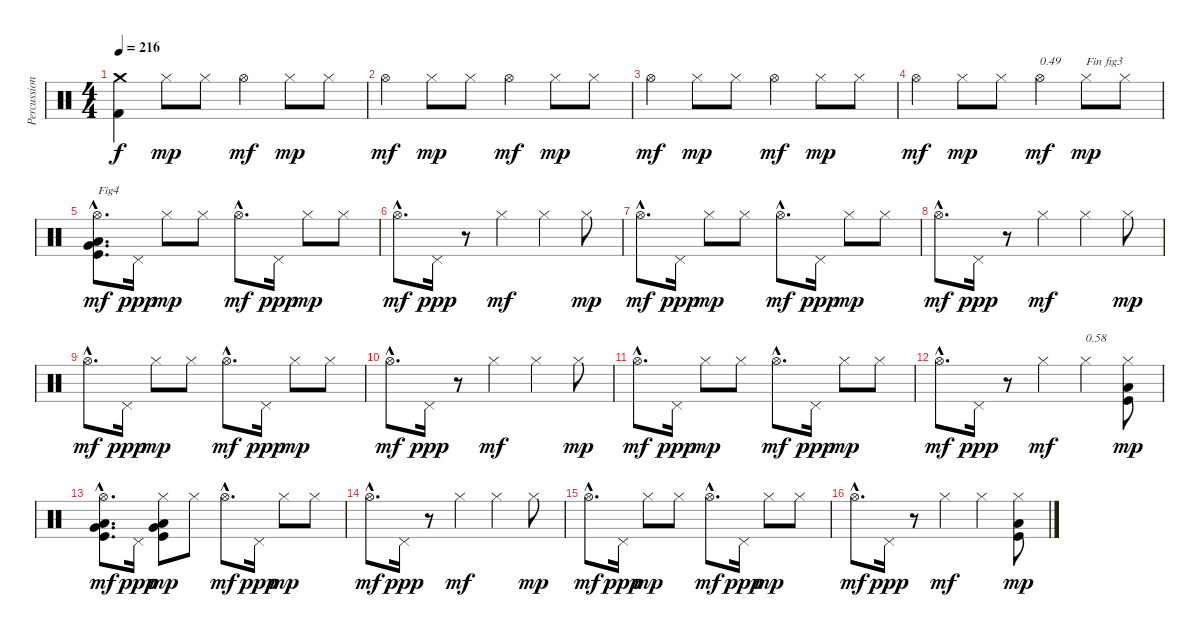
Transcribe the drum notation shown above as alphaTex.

\track ("Percussion" "Percussion") {instrument percussion}
\staff {score}
\articulation defaults
\ts (4 4)
\tempo 216
\clef neutral
\ks c
("Kick (hit) 2" "Crash medium (hit)").4{dy f} "Hi-Hat (closed)".8{dy mp} "Hi-Hat (closed)".8 "Hi-Hat (open)".4{dy mf} "Hi-Hat (closed)".8{dy mp} "Hi-Hat (closed)".8 |
"Hi-Hat (open)".4{dy mf} "Hi-Hat (closed)".8{dy mp} "Hi-Hat (closed)".8 "Hi-Hat (open)".4{dy mf} "Hi-Hat (closed)".8{dy mp} "Hi-Hat (closed)".8 |
"Hi-Hat (open)".4{dy mf} "Hi-Hat (closed)".8{dy mp} "Hi-Hat (closed)".8 "Hi-Hat (open)".4{dy mf} "Hi-Hat (closed)".8{dy mp} "Hi-Hat (closed)".8 |
"Hi-Hat (open)".4{dy mf} "Hi-Hat (closed)".8{dy mp} "Hi-Hat (closed)".8 "Hi-Hat (open)".4{txt "0.49" dy mf} "Hi-Hat (closed)".8{txt "Fin fig3" dy mp} "Hi-Hat (closed)".8 |
("Kick (hit)"{hac} "Low Floor Tom (hit)"{hac} "Very Low Tom (hit)"{hac} "Hi-Hat (open)"{hac}).8{d txt "Fig4" dy mf} "Pedal Hi-Hat (hit)".16{dy ppp} "Hi-Hat (closed)".8{dy mp} "Hi-Hat (closed)".8 "Hi-Hat (open)"{hac}.8{d dy mf} "Pedal Hi-Hat (hit)".16{dy ppp} "Hi-Hat (closed)".8{dy mp} "Hi-Hat (closed)".8 |
"Hi-Hat (open)"{hac}.8{d dy mf} "Pedal Hi-Hat (hit)".16{dy ppp} r.8 "Hi-Hat (closed)".4{dy mf} "Hi-Hat (closed)".4 "Hi-Hat (closed)".8{dy mp} |
"Hi-Hat (open)"{hac}.8{d dy mf} "Pedal Hi-Hat (hit)".16{dy ppp} "Hi-Hat (closed)".8{dy mp} "Hi-Hat (closed)".8 "Hi-Hat (open)"{hac}.8{d dy mf} "Pedal Hi-Hat (hit)".16{dy ppp} "Hi-Hat (closed)".8{dy mp} "Hi-Hat (closed)".8 |
"Hi-Hat (open)"{hac}.8{d dy mf} "Pedal Hi-Hat (hit)".16{dy ppp} r.8 "Hi-Hat (closed)".4{dy mf} "Hi-Hat (closed)".4 "Hi-Hat (closed)".8{dy mp} |
"Hi-Hat (open)"{hac}.8{d dy mf} "Pedal Hi-Hat (hit)".16{dy ppp} "Hi-Hat (closed)".8{dy mp} "Hi-Hat (closed)".8 "Hi-Hat (open)"{hac}.8{d dy mf} "Pedal Hi-Hat (hit)".16{dy ppp} "Hi-Hat (closed)".8{dy mp} "Hi-Hat (closed)".8 |
"Hi-Hat (open)"{hac}.8{d dy mf} "Pedal Hi-Hat (hit)".16{dy ppp} r.8 "Hi-Hat (closed)".4{dy mf} "Hi-Hat (closed)".4 "Hi-Hat (closed)".8{dy mp} |
"Hi-Hat (open)"{hac}.8{d dy mf} "Pedal Hi-Hat (hit)".16{dy ppp} "Hi-Hat (closed)".8{dy mp} "Hi-Hat (closed)".8 "Hi-Hat (open)"{hac}.8{d dy mf} "Pedal Hi-Hat (hit)".16{dy ppp} "Hi-Hat (closed)".8{dy mp} "Hi-Hat (closed)".8 |
"Hi-Hat (open)"{hac}.8{d dy mf} "Pedal Hi-Hat (hit)".16{dy ppp} r.8 "Hi-Hat (closed)".4{dy mf} "Hi-Hat (closed)".4{txt "0.58"} ("Kick (hit)" "Low Floor Tom (hit)" "Hi-Hat (closed)").8{dy mp} |
("Kick (hit)"{hac} "Low Floor Tom (hit)"{hac} "Very Low Tom (hit)"{hac} "Hi-Hat (open)"{hac}).8{d dy mf} "Pedal Hi-Hat (hit)".16{dy ppp} ("Kick (hit)" "Low Floor Tom (hit)" "Very Low Tom (hit)" "Hi-Hat (closed)").8{dy mp} "Hi-Hat (closed)".8 "Hi-Hat (open)"{hac}.8{d dy mf} "Pedal Hi-Hat (hit)".16{dy ppp} "Hi-Hat (closed)".8{dy mp} "Hi-Hat (closed)".8 |
"Hi-Hat (open)"{hac}.8{d dy mf} "Pedal Hi-Hat (hit)".16{dy ppp} r.8 "Hi-Hat (closed)".4{dy mf} "Hi-Hat (closed)".4 "Hi-Hat (closed)".8{dy mp} |
"Hi-Hat (open)"{hac}.8{d dy mf} "Pedal Hi-Hat (hit)".16{dy ppp} "Hi-Hat (closed)".8{dy mp} "Hi-Hat (closed)".8 "Hi-Hat (open)"{hac}.8{d dy mf} "Pedal Hi-Hat (hit)".16{dy ppp} "Hi-Hat (closed)".8{dy mp} "Hi-Hat (closed)".8 |
"Hi-Hat (open)"{hac}.8{d dy mf} "Pedal Hi-Hat (hit)".16{dy ppp} r.8 "Hi-Hat (closed)".4{dy mf} "Hi-Hat (closed)".4 ("Kick (hit)" "Low Floor Tom (hit)" "Hi-Hat (closed)").8{dy mp}
